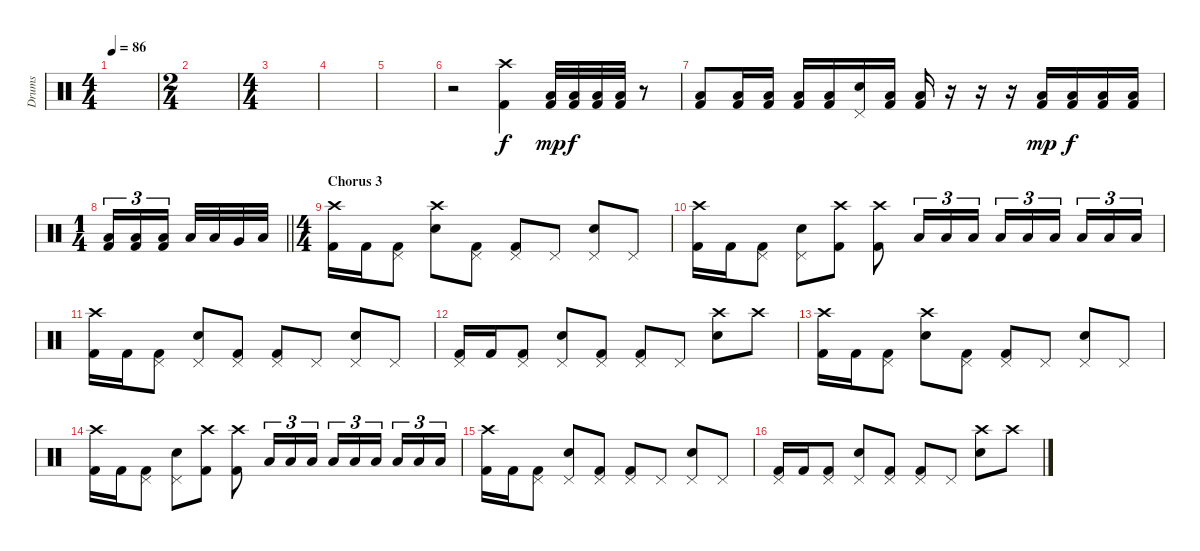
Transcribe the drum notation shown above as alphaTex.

\track ("Drums" "Drums") {instrument percussion}
\staff {score}
\articulation defaults
\ts (4 4)
\tempo 86
\clef neutral
\ks c
|
\ts (2 4)
|
\ts (4 4)
|
|
|
r.2 ("Crash high (hit)" "Kick (hit) 2").4 ("Low Tom (hit)" "Kick (hit) 2").32{dy mp} ("Low Tom (hit)" "Kick (hit) 2").32{dy f} ("Low Floor Tom (hit)" "Kick (hit) 2").32 ("Low Floor Tom (hit)" "Kick (hit) 2").32 r.8 |
("Low Floor Tom (hit)" "Kick (hit) 2").8 ("Low Floor Tom (hit)" "Kick (hit) 2").16 ("Low Floor Tom (hit)" "Kick (hit) 2").16 ("Low Floor Tom (hit)" "Kick (hit) 2").16 ("Low Floor Tom (hit)" "Kick (hit) 2").16 ("Pedal Hi-Hat (hit)" "Snare (hit) 2").16 ("Low Floor Tom (hit)" "Kick (hit) 2").16 ("Low Floor Tom (hit)" "Kick (hit) 2").16 r.16 r.16 r.16 ("Low Tom (hit)" "Kick (hit) 2").16{dy mp} ("Low Tom (hit)" "Kick (hit) 2").16{dy f} ("Low Tom (hit)" "Kick (hit) 2").16 ("Low Tom (hit)" "Kick (hit) 2").16 |
\ts (1 4)
\barLineRight lightlight
("Low Tom (hit)" "Kick (hit) 2").16{tu (3 2)} ("Low Tom (hit)" "Kick (hit) 2").16{tu (3 2)} ("Low Tom (hit)" "Kick (hit) 2").16{tu (3 2) beam splitsecondary} "Low Tom (hit)".32 "Low Tom (hit)".32 "Very Low Tom (hit)".32 "Low Floor Tom (hit)".32 |
\ts (4 4)
\section ("" "Chorus 3")
("Crash high (hit)" "Kick (hit) 2").16 "Kick (hit) 2".16 ("Pedal Hi-Hat (hit)" "Kick (hit) 2").8 ("Crash high (hit)" "Snare (hit) 2").8 ("Pedal Hi-Hat (hit)" "Kick (hit) 2").8 ("Pedal Hi-Hat (hit)" "Kick (hit) 2").8 "Pedal Hi-Hat (hit)".8 ("Pedal Hi-Hat (hit)" "Snare (hit) 2").8 "Pedal Hi-Hat (hit)".8 |
("Crash high (hit)" "Kick (hit) 2").16 "Kick (hit) 2".16 ("Pedal Hi-Hat (hit)" "Kick (hit) 2").8 ("Pedal Hi-Hat (hit)" "Snare (hit) 2").8 ("Crash high (hit)" "Kick (hit) 2").8 ("Crash high (hit)" "Kick (hit) 2").8 "Low Tom (hit)".16{tu (3 2)} "Low Tom (hit)".16{tu (3 2)} "Low Tom (hit)".16{tu (3 2)} "Low Tom (hit)".16{tu (3 2)} "Low Tom (hit)".16{tu (3 2)} "Low Tom (hit)".16{tu (3 2) beam splitsecondary} "Low Tom (hit)".16{tu (3 2)} "Low Tom (hit)".16{tu (3 2)} "Low Tom (hit)".16{tu (3 2)} |
("Crash high (hit)" "Kick (hit) 2").16 "Kick (hit) 2".16 ("Pedal Hi-Hat (hit)" "Kick (hit) 2").8 ("Pedal Hi-Hat (hit)" "Snare (hit) 2").8 ("Pedal Hi-Hat (hit)" "Kick (hit) 2").8 ("Pedal Hi-Hat (hit)" "Kick (hit) 2").8 "Pedal Hi-Hat (hit)".8 ("Pedal Hi-Hat (hit)" "Snare (hit) 2").8 "Pedal Hi-Hat (hit)".8 |
("Pedal Hi-Hat (hit)" "Kick (hit) 2").16 "Kick (hit) 2".16 ("Pedal Hi-Hat (hit)" "Kick (hit) 2").8 ("Pedal Hi-Hat (hit)" "Snare (hit) 2").8 ("Pedal Hi-Hat (hit)" "Kick (hit) 2").8 ("Pedal Hi-Hat (hit)" "Kick (hit) 2").8 "Pedal Hi-Hat (hit)".8 ("Crash high (hit)" "Snare (hit) 2").8 "Crash high (hit)".8 |
("Crash high (hit)" "Kick (hit) 2").16 "Kick (hit) 2".16 ("Pedal Hi-Hat (hit)" "Kick (hit) 2").8 ("Crash high (hit)" "Snare (hit) 2").8 ("Pedal Hi-Hat (hit)" "Kick (hit) 2").8 ("Pedal Hi-Hat (hit)" "Kick (hit) 2").8 "Pedal Hi-Hat (hit)".8 ("Pedal Hi-Hat (hit)" "Snare (hit) 2").8 "Pedal Hi-Hat (hit)".8 |
("Crash high (hit)" "Kick (hit) 2").16 "Kick (hit) 2".16 ("Pedal Hi-Hat (hit)" "Kick (hit) 2").8 ("Pedal Hi-Hat (hit)" "Snare (hit) 2").8 ("Crash high (hit)" "Kick (hit) 2").8 ("Crash high (hit)" "Kick (hit) 2").8 "Low Tom (hit)".16{tu (3 2)} "Low Tom (hit)".16{tu (3 2)} "Low Tom (hit)".16{tu (3 2)} "Low Tom (hit)".16{tu (3 2)} "Low Tom (hit)".16{tu (3 2)} "Low Tom (hit)".16{tu (3 2) beam splitsecondary} "Low Tom (hit)".16{tu (3 2)} "Low Tom (hit)".16{tu (3 2)} "Low Tom (hit)".16{tu (3 2)} |
("Crash high (hit)" "Kick (hit) 2").16 "Kick (hit) 2".16 ("Pedal Hi-Hat (hit)" "Kick (hit) 2").8 ("Pedal Hi-Hat (hit)" "Snare (hit) 2").8 ("Pedal Hi-Hat (hit)" "Kick (hit) 2").8 ("Pedal Hi-Hat (hit)" "Kick (hit) 2").8 "Pedal Hi-Hat (hit)".8 ("Pedal Hi-Hat (hit)" "Snare (hit) 2").8 "Pedal Hi-Hat (hit)".8 |
("Pedal Hi-Hat (hit)" "Kick (hit) 2").16 "Kick (hit) 2".16 ("Pedal Hi-Hat (hit)" "Kick (hit) 2").8 ("Pedal Hi-Hat (hit)" "Snare (hit) 2").8 ("Pedal Hi-Hat (hit)" "Kick (hit) 2").8 ("Pedal Hi-Hat (hit)" "Kick (hit) 2").8 "Pedal Hi-Hat (hit)".8 ("Crash high (hit)" "Snare (hit) 2").8 "Crash high (hit)".8
